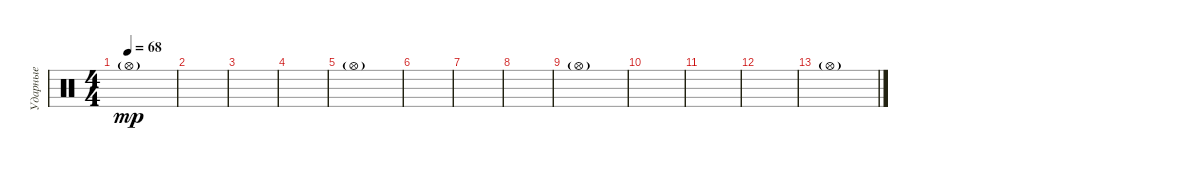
\track ("Ударные" "Ударные") {instrument percussion}
\staff {score}
\articulation defaults
\ts (4 4)
\tempo 68
\clef neutral
\ks c "Hi-Hat (open)"{g}.1{dy mp}
|
|
|
|
"Hi-Hat (open)"{g}.1 |
|
|
|
"Hi-Hat (open)"{g}.1 |
|
|
|
"Hi-Hat (open)"{g}.1
